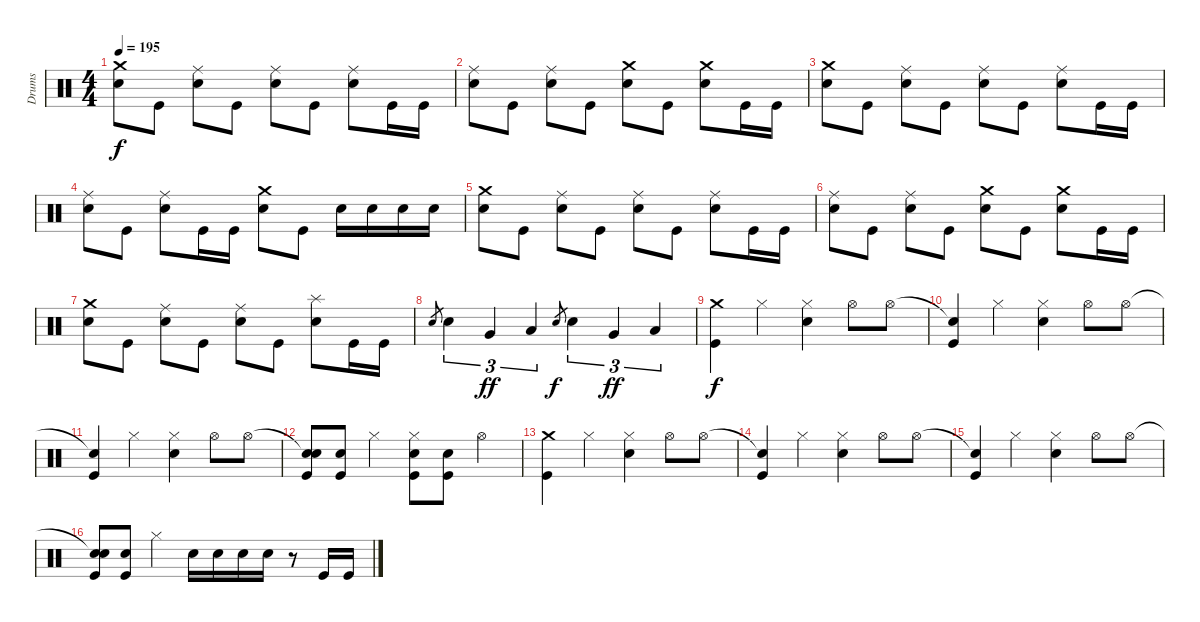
\track ("Drums" "Drums") {instrument percussion}
\staff {score}
\articulation defaults
\ts (4 4)
\tempo 195
\clef neutral
\ks c
("Crash medium (hit)" "Electric Snare (hit)").8{dy f} "Kick (hit)".8 ("Ride (middle)" "Electric Snare (hit)").8 "Kick (hit)".8 ("Ride (middle)" "Electric Snare (hit)").8 "Kick (hit)".8 ("Ride (middle)" "Electric Snare (hit)").8 "Kick (hit)".16 "Kick (hit)".16 |
("Ride (middle)" "Electric Snare (hit)").8 "Kick (hit)".8 ("Ride (middle)" "Electric Snare (hit)").8 "Kick (hit)".8 ("Crash medium (hit)" "Electric Snare (hit)").8 "Kick (hit)".8 ("Crash medium (hit)" "Electric Snare (hit)").8 "Kick (hit)".16 "Kick (hit)".16 |
("Crash medium (hit)" "Electric Snare (hit)").8 "Kick (hit)".8 ("Ride (middle)" "Electric Snare (hit)").8 "Kick (hit)".8 ("Ride (middle)" "Electric Snare (hit)").8 "Kick (hit)".8 ("Ride (middle)" "Electric Snare (hit)").8 "Kick (hit)".16 "Kick (hit)".16 |
("Ride (middle)" "Electric Snare (hit)").8 "Kick (hit)".8 ("Ride (middle)" "Electric Snare (hit)").8 "Kick (hit)".16 "Kick (hit)".16 ("Crash medium (hit)" "Electric Snare (hit)").8 "Kick (hit)".8 "Electric Snare (hit)".16 "Electric Snare (hit)".16 "Electric Snare (hit)".16 "Electric Snare (hit)".16 |
("Crash medium (hit)" "Electric Snare (hit)").8 "Kick (hit)".8 ("Ride (middle)" "Electric Snare (hit)").8 "Kick (hit)".8 ("Ride (middle)" "Electric Snare (hit)").8 "Kick (hit)".8 ("Ride (middle)" "Electric Snare (hit)").8 "Kick (hit)".16 "Kick (hit)".16 |
("Ride (middle)" "Electric Snare (hit)").8 "Kick (hit)".8 ("Ride (middle)" "Electric Snare (hit)").8 "Kick (hit)".8 ("Crash medium (hit)" "Electric Snare (hit)").8 "Kick (hit)".8 ("Crash medium (hit)" "Electric Snare (hit)").8 "Kick (hit)".16 "Kick (hit)".16 |
("Crash medium (hit)" "Electric Snare (hit)").8 "Kick (hit)".8 ("Ride (middle)" "Electric Snare (hit)").8 "Kick (hit)".8 ("Ride (middle)" "Electric Snare (hit)").8 "Kick (hit)".8 ("Splash (hit)" "Electric Snare (hit)").8 "Kick (hit)".16 "Kick (hit)".16 |
"Electric Snare (hit)".8{gr} "Electric Snare (hit)".4{tu (3 2)} "Very Low Tom (hit)".4{tu (3 2) dy ff} "Low Floor Tom (hit)".4{tu (3 2)} "Electric Snare (hit)".8{gr dy f} "Electric Snare (hit)".4{tu (3 2)} "Very Low Tom (hit)".4{tu (3 2) dy ff} "Low Floor Tom (hit)".4{tu (3 2)} |
("Crash medium (hit)" "Kick (hit)").4{dy f} "Hi-Hat (closed)".4 ("Hi-Hat (closed)" "Electric Snare (hit)").4 "Hi-Hat (open)".8 "Hi-Hat (open)".8 |
("Snare (hit)"{t} "Kick (hit)").4 "Hi-Hat (closed)".4 ("Hi-Hat (closed)" "Electric Snare (hit)").4 "Hi-Hat (open)".8 "Hi-Hat (open)".8 |
("Snare (hit)"{t} "Kick (hit)").4 "Hi-Hat (closed)".4 ("Hi-Hat (closed)" "Electric Snare (hit)").4 "Hi-Hat (open)".8 "Hi-Hat (open)".8 |
("Snare (hit)"{t} "Electric Snare (hit)" "Kick (hit)").8 ("Electric Snare (hit)" "Kick (hit)").8 "Hi-Hat (closed)".4 ("Hi-Hat (closed)" "Electric Snare (hit)" "Kick (hit)").8 ("Electric Snare (hit)" "Kick (hit)").8 "Hi-Hat (open)".4 |
("Crash medium (hit)" "Kick (hit)").4 "Hi-Hat (closed)".4 ("Hi-Hat (closed)" "Electric Snare (hit)").4 "Hi-Hat (open)".8 "Hi-Hat (open)".8 |
("Snare (hit)"{t} "Kick (hit)").4 "Hi-Hat (closed)".4 ("Hi-Hat (closed)" "Electric Snare (hit)").4 "Hi-Hat (open)".8 "Hi-Hat (open)".8 |
("Snare (hit)"{t} "Kick (hit)").4 "Hi-Hat (closed)".4 ("Hi-Hat (closed)" "Electric Snare (hit)").4 "Hi-Hat (open)".8 "Hi-Hat (open)".8 |
("Snare (hit)"{t} "Electric Snare (hit)" "Kick (hit)").8 ("Electric Snare (hit)" "Kick (hit)").8 "Hi-Hat (closed)".4 "Electric Snare (hit)".16 "Electric Snare (hit)".16 "Electric Snare (hit)".16 "Electric Snare (hit)".16 r.8 "Kick (hit)".16 "Kick (hit)".16
